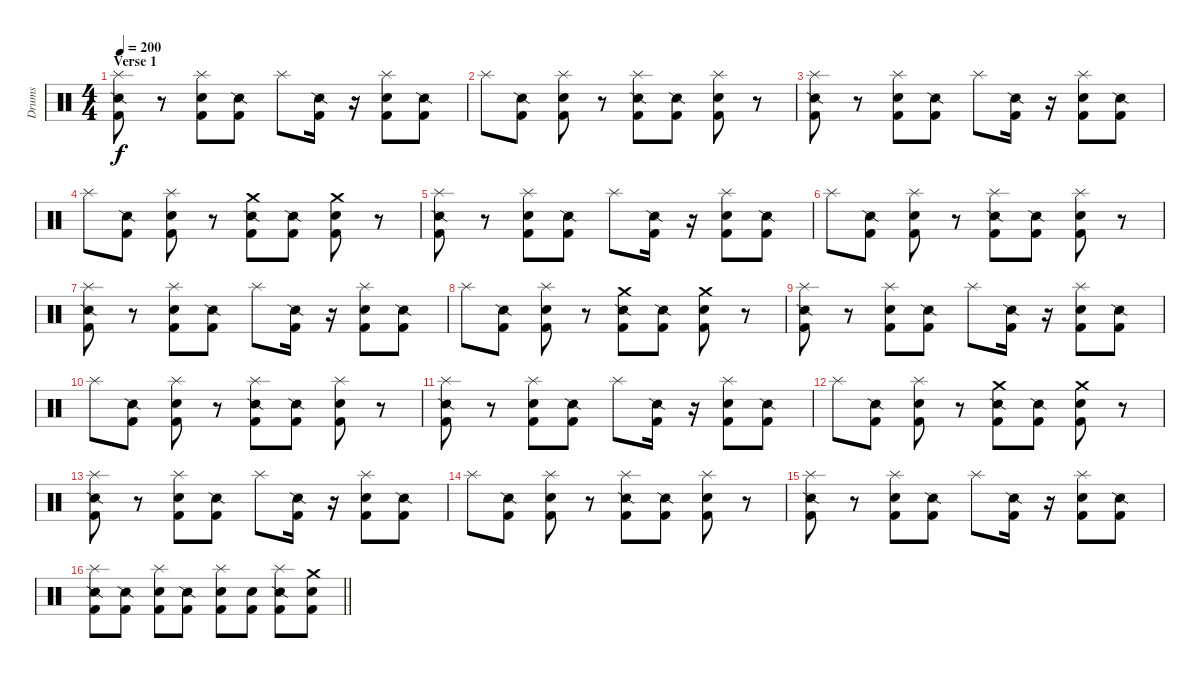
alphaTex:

\track ("Drums" "Drums") {instrument percussion}
\staff {score}
\articulation defaults
\ts (4 4)
\section ("" "Verse 1")
\tempo 200
\clef neutral
\ks c
("Splash (hit)" "Snare (side stick) 2" "Kick (hit) 2").8{dy f} r.8 ("Splash (hit)" "Snare (hit) 2" "Kick (hit) 2").8 ("Snare (side stick) 2" "Kick (hit) 2").8 "Splash (hit)".8 ("Snare (side stick) 2" "Kick (hit) 2").16 r.16 ("Splash (hit)" "Snare (hit) 2" "Kick (hit) 2").8 ("Snare (side stick) 2" "Kick (hit) 2").8 |
"Splash (hit)".8 ("Snare (side stick) 2" "Kick (hit) 2").8 ("Splash (hit)" "Snare (hit) 2" "Kick (hit) 2").8 r.8 ("Splash (hit)" "Snare (side stick) 2" "Kick (hit) 2").8 ("Snare (side stick) 2" "Kick (hit) 2").8 ("Splash (hit)" "Snare (hit) 2" "Kick (hit) 2").8 r.8 |
("Splash (hit)" "Snare (side stick) 2" "Kick (hit) 2").8 r.8 ("Splash (hit)" "Snare (hit) 2" "Kick (hit) 2").8 ("Snare (side stick) 2" "Kick (hit) 2").8 "Splash (hit)".8 ("Snare (side stick) 2" "Kick (hit) 2").16 r.16 ("Splash (hit)" "Snare (hit) 2" "Kick (hit) 2").8 ("Snare (side stick) 2" "Kick (hit) 2").8 |
"Splash (hit)".8 ("Snare (side stick) 2" "Kick (hit) 2").8 ("Splash (hit)" "Snare (hit) 2" "Kick (hit) 2").8 r.8 ("Crash medium (hit)" "Snare (side stick) 2" "Kick (hit) 2").8 ("Snare (side stick) 2" "Kick (hit) 2").8 ("Crash medium (hit)" "Snare (hit) 2" "Kick (hit) 2").8 r.8 |
("Splash (hit)" "Snare (side stick) 2" "Kick (hit) 2").8 r.8 ("Splash (hit)" "Snare (hit) 2" "Kick (hit) 2").8 ("Snare (side stick) 2" "Kick (hit) 2").8 "Splash (hit)".8 ("Snare (side stick) 2" "Kick (hit) 2").16 r.16 ("Splash (hit)" "Snare (hit) 2" "Kick (hit) 2").8 ("Snare (side stick) 2" "Kick (hit) 2").8 |
"Splash (hit)".8 ("Snare (side stick) 2" "Kick (hit) 2").8 ("Splash (hit)" "Snare (hit) 2" "Kick (hit) 2").8 r.8 ("Splash (hit)" "Snare (side stick) 2" "Kick (hit) 2").8 ("Snare (side stick) 2" "Kick (hit) 2").8 ("Splash (hit)" "Snare (hit) 2" "Kick (hit) 2").8 r.8 |
("Splash (hit)" "Snare (side stick) 2" "Kick (hit) 2").8 r.8 ("Splash (hit)" "Snare (hit) 2" "Kick (hit) 2").8 ("Snare (side stick) 2" "Kick (hit) 2").8 "Splash (hit)".8 ("Snare (side stick) 2" "Kick (hit) 2").16 r.16 ("Splash (hit)" "Snare (hit) 2" "Kick (hit) 2").8 ("Snare (side stick) 2" "Kick (hit) 2").8 |
"Splash (hit)".8 ("Snare (side stick) 2" "Kick (hit) 2").8 ("Splash (hit)" "Snare (hit) 2" "Kick (hit) 2").8 r.8 ("Crash medium (hit)" "Snare (side stick) 2" "Kick (hit) 2").8 ("Snare (side stick) 2" "Kick (hit) 2").8 ("Crash medium (hit)" "Snare (hit) 2" "Kick (hit) 2").8 r.8 |
("Splash (hit)" "Snare (side stick) 2" "Kick (hit) 2").8 r.8 ("Splash (hit)" "Snare (hit) 2" "Kick (hit) 2").8 ("Snare (side stick) 2" "Kick (hit) 2").8 "Splash (hit)".8 ("Snare (side stick) 2" "Kick (hit) 2").16 r.16 ("Splash (hit)" "Snare (hit) 2" "Kick (hit) 2").8 ("Snare (side stick) 2" "Kick (hit) 2").8 |
"Splash (hit)".8 ("Snare (side stick) 2" "Kick (hit) 2").8 ("Splash (hit)" "Snare (hit) 2" "Kick (hit) 2").8 r.8 ("Splash (hit)" "Snare (side stick) 2" "Kick (hit) 2").8 ("Snare (side stick) 2" "Kick (hit) 2").8 ("Splash (hit)" "Snare (hit) 2" "Kick (hit) 2").8 r.8 |
("Splash (hit)" "Snare (side stick) 2" "Kick (hit) 2").8 r.8 ("Splash (hit)" "Snare (hit) 2" "Kick (hit) 2").8 ("Snare (side stick) 2" "Kick (hit) 2").8 "Splash (hit)".8 ("Snare (side stick) 2" "Kick (hit) 2").16 r.16 ("Splash (hit)" "Snare (hit) 2" "Kick (hit) 2").8 ("Snare (side stick) 2" "Kick (hit) 2").8 |
"Splash (hit)".8 ("Snare (side stick) 2" "Kick (hit) 2").8 ("Splash (hit)" "Snare (hit) 2" "Kick (hit) 2").8 r.8 ("Crash medium (hit)" "Snare (side stick) 2" "Kick (hit) 2").8 ("Snare (side stick) 2" "Kick (hit) 2").8 ("Crash medium (hit)" "Snare (hit) 2" "Kick (hit) 2").8 r.8 |
("Splash (hit)" "Snare (side stick) 2" "Kick (hit) 2").8 r.8 ("Splash (hit)" "Snare (hit) 2" "Kick (hit) 2").8 ("Snare (side stick) 2" "Kick (hit) 2").8 "Splash (hit)".8 ("Snare (side stick) 2" "Kick (hit) 2").16 r.16 ("Splash (hit)" "Snare (hit) 2" "Kick (hit) 2").8 ("Snare (side stick) 2" "Kick (hit) 2").8 |
"Splash (hit)".8 ("Snare (side stick) 2" "Kick (hit) 2").8 ("Splash (hit)" "Snare (hit) 2" "Kick (hit) 2").8 r.8 ("Splash (hit)" "Snare (side stick) 2" "Kick (hit) 2").8 ("Snare (side stick) 2" "Kick (hit) 2").8 ("Splash (hit)" "Snare (hit) 2" "Kick (hit) 2").8 r.8 |
("Splash (hit)" "Snare (side stick) 2" "Kick (hit) 2").8 r.8 ("Splash (hit)" "Snare (hit) 2" "Kick (hit) 2").8 ("Snare (side stick) 2" "Kick (hit) 2").8 "Splash (hit)".8 ("Snare (side stick) 2" "Kick (hit) 2").16 r.16 ("Splash (hit)" "Snare (hit) 2" "Kick (hit) 2").8 ("Snare (side stick) 2" "Kick (hit) 2").8 |
\barLineRight lightlight
("Splash (hit)" "Snare (side stick) 2" "Kick (hit) 2").8 ("Snare (side stick) 2" "Kick (hit) 2").8 ("Splash (hit)" "Kick (hit) 2" "Snare (hit) 2").8 ("Snare (side stick) 2" "Kick (hit) 2").8 ("Splash (hit)" "Snare (hit) 2" "Kick (hit) 2").8 ("Snare (hit) 2" "Kick (hit) 2").8 ("Splash (hit)" "Snare (side stick) 2" "Kick (hit) 2").8 ("Crash medium (hit)" "Snare (hit) 2" "Kick (hit) 2").8
